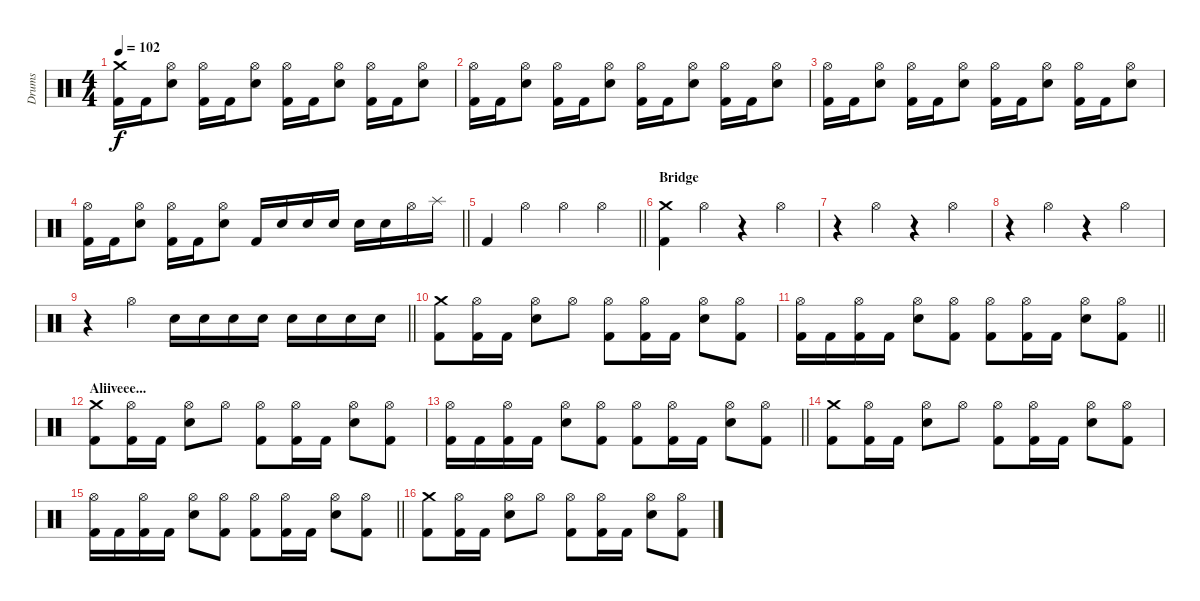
\track ("Drums" "Drums") {instrument percussion}
\staff {score}
\articulation defaults
\ts (4 4)
\tempo 102
\clef neutral
\ks c
("Kick (hit) 2" "Crash medium (hit)").16{dy f} "Kick (hit) 2".16 ("Snare (hit) 2" "Hi-Hat (open)").8 ("Kick (hit) 2" "Hi-Hat (open)").16 "Kick (hit) 2".16 ("Snare (hit) 2" "Hi-Hat (open)").8 ("Kick (hit) 2" "Hi-Hat (open)").16 "Kick (hit) 2".16 ("Snare (hit) 2" "Hi-Hat (open)").8 ("Kick (hit) 2" "Hi-Hat (open)").16 "Kick (hit) 2".16 ("Snare (hit) 2" "Hi-Hat (open)").8 |
("Kick (hit) 2" "Hi-Hat (open)").16 "Kick (hit) 2".16 ("Snare (hit) 2" "Hi-Hat (open)").8 ("Kick (hit) 2" "Hi-Hat (open)").16 "Kick (hit) 2".16 ("Snare (hit) 2" "Hi-Hat (open)").8 ("Kick (hit) 2" "Hi-Hat (open)").16 "Kick (hit) 2".16 ("Snare (hit) 2" "Hi-Hat (open)").8 ("Kick (hit) 2" "Hi-Hat (open)").16 "Kick (hit) 2".16 ("Snare (hit) 2" "Hi-Hat (open)").8 |
("Kick (hit) 2" "Hi-Hat (open)").16 "Kick (hit) 2".16 ("Snare (hit) 2" "Hi-Hat (open)").8 ("Kick (hit) 2" "Hi-Hat (open)").16 "Kick (hit) 2".16 ("Snare (hit) 2" "Hi-Hat (open)").8 ("Kick (hit) 2" "Hi-Hat (open)").16 "Kick (hit) 2".16 ("Snare (hit) 2" "Hi-Hat (open)").8 ("Kick (hit) 2" "Hi-Hat (open)").16 "Kick (hit) 2".16 ("Snare (hit) 2" "Hi-Hat (open)").8 |
\barLineRight lightlight
("Kick (hit) 2" "Hi-Hat (open)").16 "Kick (hit) 2".16 ("Snare (hit) 2" "Hi-Hat (open)").8 ("Kick (hit) 2" "Hi-Hat (open)").16 "Kick (hit) 2".16 ("Snare (hit) 2" "Hi-Hat (open)").8 "Kick (hit) 2".16 "Snare (hit) 2".16 "Snare (hit) 2".16 "Snare (hit) 2".16 "Snare (hit) 2".16 "Snare (hit) 2".16 "Hi-Hat (open)".16 "Splash (hit)".16 |
\section ("" "")
\barLineRight lightlight "Kick (hit) 2".4 "Hi-Hat (open)".4 "Hi-Hat (open)".4 "Hi-Hat (open)".4
|
\section ("" "Bridge")
("Kick (hit) 2" "Crash medium (hit)").4 "Hi-Hat (open)".4 r.4 "Hi-Hat (open)".4 |
r.4 "Hi-Hat (open)".4 r.4 "Hi-Hat (open)".4 |
r.4 "Hi-Hat (open)".4 r.4 "Hi-Hat (open)".4 |
\barLineRight lightlight
r.4 "Hi-Hat (open)".4 "Snare (hit) 2".16 "Snare (hit) 2".16 "Snare (hit) 2".16 "Snare (hit) 2".16 "Snare (hit) 2".16 "Snare (hit) 2".16 "Snare (hit) 2".16 "Snare (hit) 2".16 |
\section ("" "")
("Kick (hit) 2" "Crash medium (hit)").8 ("Kick (hit) 2" "Hi-Hat (open)").16 "Kick (hit) 2".16 ("Snare (hit) 2" "Hi-Hat (open)").8 "Hi-Hat (open)".8 ("Kick (hit) 2" "Hi-Hat (open)").8 ("Kick (hit) 2" "Hi-Hat (open)").16 "Kick (hit) 2".16 ("Snare (hit) 2" "Hi-Hat (open)").8 ("Kick (hit) 2" "Hi-Hat (open)").8 |
\barLineRight lightlight
("Kick (hit) 2" "Hi-Hat (open)").16 "Kick (hit) 2".16 ("Kick (hit) 2" "Hi-Hat (open)").16 "Kick (hit) 2".16 ("Snare (hit) 2" "Hi-Hat (open)").8 ("Kick (hit) 2" "Hi-Hat (open)").8 ("Kick (hit) 2" "Hi-Hat (open)").8 ("Kick (hit) 2" "Hi-Hat (open)").16 "Kick (hit) 2".16 ("Snare (hit) 2" "Hi-Hat (open)").8 ("Kick (hit) 2" "Hi-Hat (open)").8 |
\section ("" "Aliiveee...")
("Kick (hit) 2" "Crash medium (hit)").8 ("Kick (hit) 2" "Hi-Hat (open)").16 "Kick (hit) 2".16 ("Snare (hit) 2" "Hi-Hat (open)").8 "Hi-Hat (open)".8 ("Kick (hit) 2" "Hi-Hat (open)").8 ("Kick (hit) 2" "Hi-Hat (open)").16 "Kick (hit) 2".16 ("Snare (hit) 2" "Hi-Hat (open)").8 ("Kick (hit) 2" "Hi-Hat (open)").8 |
\barLineRight lightlight
("Kick (hit) 2" "Hi-Hat (open)").16 "Kick (hit) 2".16 ("Kick (hit) 2" "Hi-Hat (open)").16 "Kick (hit) 2".16 ("Snare (hit) 2" "Hi-Hat (open)").8 ("Kick (hit) 2" "Hi-Hat (open)").8 ("Kick (hit) 2" "Hi-Hat (open)").8 ("Kick (hit) 2" "Hi-Hat (open)").16 "Kick (hit) 2".16 ("Snare (hit) 2" "Hi-Hat (open)").8 ("Kick (hit) 2" "Hi-Hat (open)").8 |
("Kick (hit) 2" "Crash medium (hit)").8 ("Kick (hit) 2" "Hi-Hat (open)").16 "Kick (hit) 2".16 ("Snare (hit) 2" "Hi-Hat (open)").8 "Hi-Hat (open)".8 ("Kick (hit) 2" "Hi-Hat (open)").8 ("Kick (hit) 2" "Hi-Hat (open)").16 "Kick (hit) 2".16 ("Snare (hit) 2" "Hi-Hat (open)").8 ("Kick (hit) 2" "Hi-Hat (open)").8 |
\barLineRight lightlight
("Kick (hit) 2" "Hi-Hat (open)").16 "Kick (hit) 2".16 ("Kick (hit) 2" "Hi-Hat (open)").16 "Kick (hit) 2".16 ("Snare (hit) 2" "Hi-Hat (open)").8 ("Kick (hit) 2" "Hi-Hat (open)").8 ("Kick (hit) 2" "Hi-Hat (open)").8 ("Kick (hit) 2" "Hi-Hat (open)").16 "Kick (hit) 2".16 ("Snare (hit) 2" "Hi-Hat (open)").8 ("Kick (hit) 2" "Hi-Hat (open)").8 |
("Kick (hit) 2" "Crash medium (hit)").8 ("Kick (hit) 2" "Hi-Hat (open)").16 "Kick (hit) 2".16 ("Snare (hit) 2" "Hi-Hat (open)").8 "Hi-Hat (open)".8 ("Kick (hit) 2" "Hi-Hat (open)").8 ("Kick (hit) 2" "Hi-Hat (open)").16 "Kick (hit) 2".16 ("Snare (hit) 2" "Hi-Hat (open)").8 ("Kick (hit) 2" "Hi-Hat (open)").8
